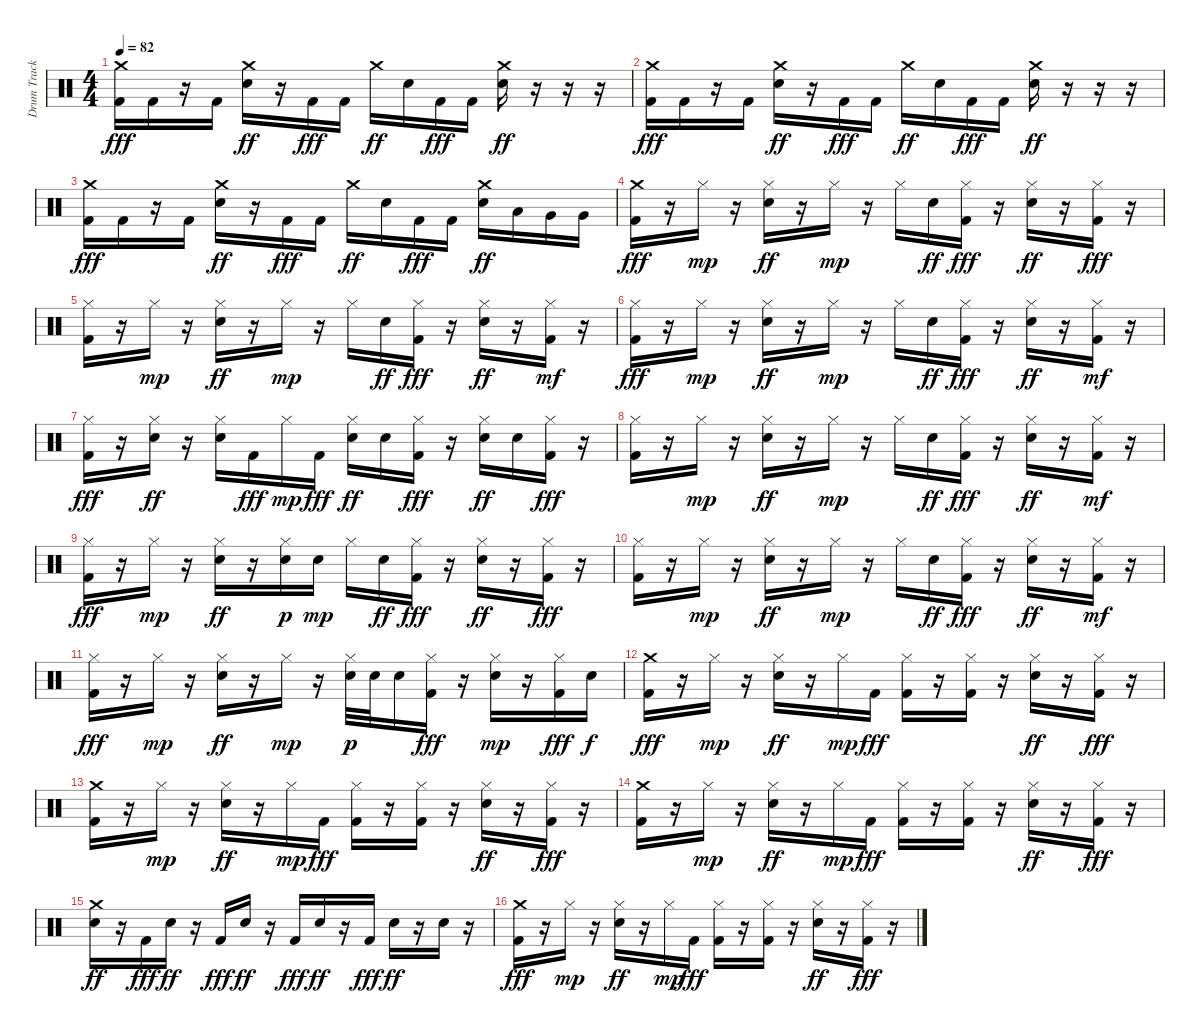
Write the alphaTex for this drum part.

\track ("Drum Track" "Drum Track") {instrument percussion}
\staff {score}
\articulation defaults
\ts (4 4)
\tempo 82
\clef neutral
\ks c
("Crash medium (hit)" "Kick (hit) 2").16{dy fff} "Kick (hit) 2".16 r.16 "Kick (hit) 2".16 ("Crash medium (hit)" "Electric Snare (hit)").16{dy ff} r.16 "Kick (hit) 2".16{dy fff} "Kick (hit) 2".16 "Crash medium (hit)".16{dy ff} "Electric Snare (hit)".16 "Kick (hit) 2".16{dy fff} "Kick (hit) 2".16 ("Crash medium (hit)" "Electric Snare (hit)").16{dy ff} r.16 r.16 r.16 |
("Crash medium (hit)" "Kick (hit) 2").16{dy fff} "Kick (hit) 2".16 r.16 "Kick (hit) 2".16 ("Crash medium (hit)" "Electric Snare (hit)").16{dy ff} r.16 "Kick (hit) 2".16{dy fff} "Kick (hit) 2".16 "Crash medium (hit)".16{dy ff} "Electric Snare (hit)".16 "Kick (hit) 2".16{dy fff} "Kick (hit) 2".16 ("Crash medium (hit)" "Electric Snare (hit)").16{dy ff} r.16 r.16 r.16 |
("Crash medium (hit)" "Kick (hit) 2").16{dy fff} "Kick (hit) 2".16 r.16 "Kick (hit) 2".16 ("Crash medium (hit)" "Electric Snare (hit)").16{dy ff} r.16 "Kick (hit) 2".16{dy fff} "Kick (hit) 2".16 "Crash medium (hit)".16{dy ff} "Electric Snare (hit)".16 "Kick (hit) 2".16{dy fff} "Kick (hit) 2".16 ("Crash medium (hit)" "Electric Snare (hit)").16{dy ff} "Low Tom (hit)".16 "Very Low Tom (hit)".16 "Very Low Tom (hit)".16 |
("Crash medium (hit)" "Kick (hit) 2").16{dy fff} r.16 "Hi-Hat (closed)".16{dy mp} r.16 ("Hi-Hat (closed)" "Electric Snare (hit)").16{dy ff} r.16 "Hi-Hat (closed)".16{dy mp} r.16 "Hi-Hat (closed)".16 "Electric Snare (hit)".16{dy ff} ("Hi-Hat (closed)" "Kick (hit) 2").16{dy fff} r.16 ("Hi-Hat (closed)" "Electric Snare (hit)").16{dy ff} r.16 ("Hi-Hat (closed)" "Kick (hit) 2").16{dy fff} r.16 |
("Hi-Hat (closed)" "Kick (hit) 2").16 r.16 "Hi-Hat (closed)".16{dy mp} r.16 ("Hi-Hat (closed)" "Electric Snare (hit)").16{dy ff} r.16 "Hi-Hat (closed)".16{dy mp} r.16 "Hi-Hat (closed)".16 "Electric Snare (hit)".16{dy ff} ("Hi-Hat (closed)" "Kick (hit) 2").16{dy fff} r.16 ("Hi-Hat (closed)" "Electric Snare (hit)").16{dy ff} r.16 ("Hi-Hat (closed)" "Kick (hit) 2").16{dy mf} r.16 |
("Hi-Hat (closed)" "Kick (hit) 2").16{dy fff} r.16 "Hi-Hat (closed)".16{dy mp} r.16 ("Hi-Hat (closed)" "Electric Snare (hit)").16{dy ff} r.16 "Hi-Hat (closed)".16{dy mp} r.16 "Hi-Hat (closed)".16 "Electric Snare (hit)".16{dy ff} ("Hi-Hat (closed)" "Kick (hit) 2").16{dy fff} r.16 ("Hi-Hat (closed)" "Electric Snare (hit)").16{dy ff} r.16 ("Hi-Hat (closed)" "Kick (hit) 2").16{dy mf} r.16 |
("Hi-Hat (closed)" "Kick (hit) 2").16{dy fff} r.16 ("Hi-Hat (closed)" "Electric Snare (hit)").16{dy ff} r.16 ("Hi-Hat (closed)" "Electric Snare (hit)").16 "Kick (hit) 2".16{dy fff} "Hi-Hat (closed)".16{dy mp} "Kick (hit) 2".16{dy fff} ("Hi-Hat (closed)" "Electric Snare (hit)").16{dy ff} "Electric Snare (hit)".16 ("Hi-Hat (closed)" "Kick (hit) 2").16{dy fff} r.16 ("Hi-Hat (closed)" "Electric Snare (hit)").16{dy ff} "Electric Snare (hit)".16 ("Hi-Hat (closed)" "Kick (hit) 2").16{dy fff} r.16 |
("Hi-Hat (closed)" "Kick (hit) 2").16 r.16 "Hi-Hat (closed)".16{dy mp} r.16 ("Hi-Hat (closed)" "Electric Snare (hit)").16{dy ff} r.16 "Hi-Hat (closed)".16{dy mp} r.16 "Hi-Hat (closed)".16 "Electric Snare (hit)".16{dy ff} ("Hi-Hat (closed)" "Kick (hit) 2").16{dy fff} r.16 ("Hi-Hat (closed)" "Electric Snare (hit)").16{dy ff} r.16 ("Hi-Hat (closed)" "Kick (hit) 2").16{dy mf} r.16 |
("Hi-Hat (closed)" "Kick (hit) 2").16{dy fff} r.16 "Hi-Hat (closed)".16{dy mp} r.16 ("Hi-Hat (closed)" "Electric Snare (hit)").16{dy ff} r.16 ("Hi-Hat (closed)" "Electric Snare (hit)").16{dy p} "Electric Snare (hit)".16{dy mp} "Hi-Hat (closed)".16 "Electric Snare (hit)".16{dy ff} ("Hi-Hat (closed)" "Kick (hit) 2").16{dy fff} r.16 ("Hi-Hat (closed)" "Electric Snare (hit)").16{dy ff} r.16 ("Hi-Hat (closed)" "Kick (hit) 2").16{dy fff} r.16 |
("Hi-Hat (closed)" "Kick (hit) 2").16 r.16 "Hi-Hat (closed)".16{dy mp} r.16 ("Hi-Hat (closed)" "Electric Snare (hit)").16{dy ff} r.16 "Hi-Hat (closed)".16{dy mp} r.16 "Hi-Hat (closed)".16 "Electric Snare (hit)".16{dy ff} ("Hi-Hat (closed)" "Kick (hit) 2").16{dy fff} r.16 ("Hi-Hat (closed)" "Electric Snare (hit)").16{dy ff} r.16 ("Hi-Hat (closed)" "Kick (hit) 2").16{dy mf} r.16 |
("Hi-Hat (closed)" "Kick (hit) 2").16{dy fff} r.16 "Hi-Hat (closed)".16{dy mp} r.16 ("Hi-Hat (closed)" "Electric Snare (hit)").16{dy ff} r.16 "Hi-Hat (closed)".16{dy mp} r.16 ("Hi-Hat (closed)" "Electric Snare (hit)").32{dy p} "Electric Snare (hit)".32 "Electric Snare (hit)".16 ("Hi-Hat (closed)" "Kick (hit) 2").16{dy fff} r.16 ("Hi-Hat (closed)" "Electric Snare (hit)").16{dy mp} r.16 ("Hi-Hat (closed)" "Kick (hit) 2").16{dy fff} "Snare (hit)".16{dy f} |
("Crash medium (hit)" "Kick (hit) 2").16{dy fff} r.16 "Hi-Hat (closed)".16{dy mp} r.16 ("Hi-Hat (closed)" "Electric Snare (hit)").16{dy ff} r.16 "Hi-Hat (closed)".16{dy mp} "Kick (hit) 2".16{dy fff} ("Hi-Hat (closed)" "Kick (hit) 2").16 r.16 ("Hi-Hat (closed)" "Kick (hit) 2").16 r.16 ("Hi-Hat (closed)" "Electric Snare (hit)").16{dy ff} r.16 ("Hi-Hat (closed)" "Kick (hit) 2").16{dy fff} r.16 |
("Crash medium (hit)" "Kick (hit) 2").16 r.16 "Hi-Hat (closed)".16{dy mp} r.16 ("Hi-Hat (closed)" "Electric Snare (hit)").16{dy ff} r.16 "Hi-Hat (closed)".16{dy mp} "Kick (hit) 2".16{dy fff} ("Hi-Hat (closed)" "Kick (hit) 2").16 r.16 ("Hi-Hat (closed)" "Kick (hit) 2").16 r.16 ("Hi-Hat (closed)" "Electric Snare (hit)").16{dy ff} r.16 ("Hi-Hat (closed)" "Kick (hit) 2").16{dy fff} r.16 |
("Crash medium (hit)" "Kick (hit) 2").16 r.16 "Hi-Hat (closed)".16{dy mp} r.16 ("Hi-Hat (closed)" "Electric Snare (hit)").16{dy ff} r.16 "Hi-Hat (closed)".16{dy mp} "Kick (hit) 2".16{dy fff} ("Hi-Hat (closed)" "Kick (hit) 2").16 r.16 ("Hi-Hat (closed)" "Kick (hit) 2").16 r.16 ("Hi-Hat (closed)" "Electric Snare (hit)").16{dy ff} r.16 ("Hi-Hat (closed)" "Kick (hit) 2").16{dy fff} r.16 |
("Crash medium (hit)" "Electric Snare (hit)").16{dy ff} r.16 "Kick (hit) 2".16{dy fff} "Electric Snare (hit)".16{dy ff} r.16 "Kick (hit) 2".16{dy fff} "Electric Snare (hit)".16{dy ff} r.16 "Kick (hit) 2".16{dy fff} "Electric Snare (hit)".16{dy ff} r.16 "Kick (hit) 2".16{dy fff} "Electric Snare (hit)".16{dy ff} r.16 "Electric Snare (hit)".16 r.16 |
("Crash medium (hit)" "Kick (hit) 2").16{dy fff} r.16 "Hi-Hat (closed)".16{dy mp} r.16 ("Hi-Hat (closed)" "Electric Snare (hit)").16{dy ff} r.16 "Hi-Hat (closed)".16{dy mp} "Kick (hit) 2".16{dy fff} ("Hi-Hat (closed)" "Kick (hit) 2").16 r.16 ("Hi-Hat (closed)" "Kick (hit) 2").16 r.16 ("Hi-Hat (closed)" "Electric Snare (hit)").16{dy ff} r.16 ("Hi-Hat (closed)" "Kick (hit) 2").16{dy fff} r.16
